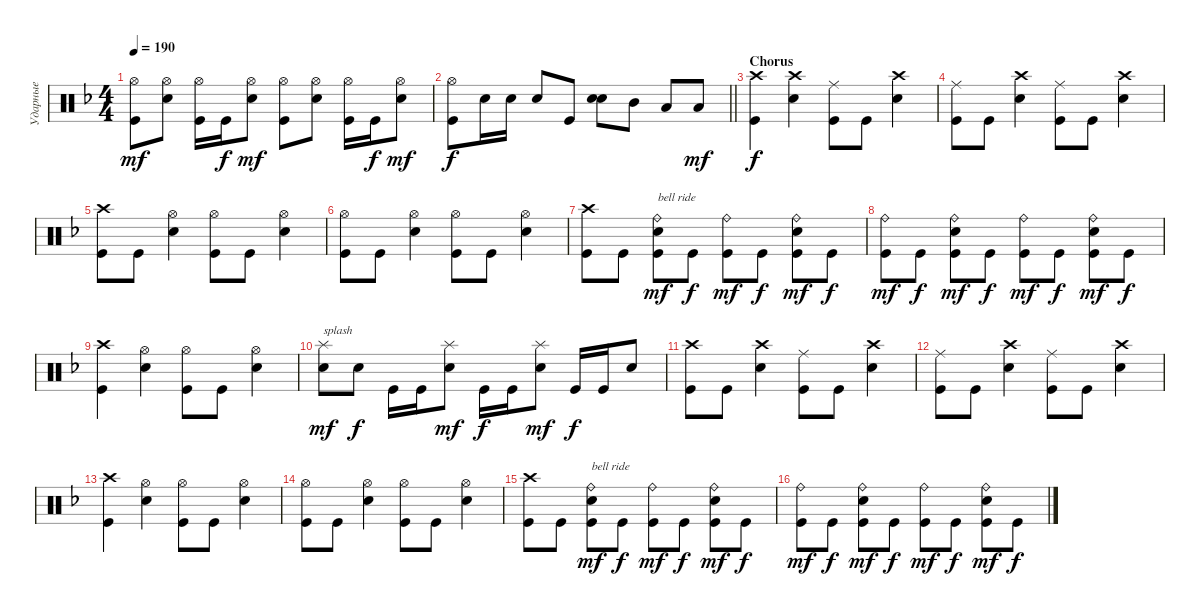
\track ("Ударные" "Ударные") {instrument percussion}
\staff {score}
\articulation defaults
\ts (4 4)
\tempo 190
\clef neutral
\ks dminor
("Kick (hit)" "Hi-Hat (open)").8{dy mf} ("Snare (hit) 2" "Hi-Hat (open)").8 ("Kick (hit)" "Hi-Hat (open)").16 "Kick (hit)".16{dy f} ("Snare (hit) 2" "Hi-Hat (open)").8{dy mf} ("Kick (hit)" "Hi-Hat (open)").8 ("Snare (hit) 2" "Hi-Hat (open)").8 ("Kick (hit)" "Hi-Hat (open)").16 "Kick (hit)".16{dy f} ("Snare (hit) 2" "Hi-Hat (open)").8{dy mf} |
\barLineRight lightlight
("Kick (hit)" "Hi-Hat (open)").8{dy f} "Snare (hit) 2".16 "Snare (hit) 2".16 "Snare (hit) 2".8 "Kick (hit)".8 ("Snare (hit) 2" "Snare (hit) 2").8{bd 240} "Mid Tom (hit)".8 "Low Tom (hit)".8 "Low Tom (hit)".8{dy mf} |
\section ("" "Chorus")
("Kick (hit)" "Crash high (hit)").4{dy f} ("Snare (hit) 2" "Crash high (hit)").4 ("Kick (hit)" "Ride (middle)").8 "Kick (hit)".8 ("Snare (hit) 2" "Crash high (hit)").4 |
("Kick (hit)" "Ride (middle)").8 "Kick (hit)".8 ("Snare (hit) 2" "Crash high (hit)").4 ("Kick (hit)" "Ride (middle)").8 "Kick (hit)".8 ("Snare (hit) 2" "Crash high (hit)").4 |
("Kick (hit)" "Crash high (hit)").8 "Kick (hit)".8 ("Snare (hit) 2" "Hi-Hat (open)").4 ("Kick (hit)" "Hi-Hat (open)").8 "Kick (hit)".8 ("Snare (hit) 2" "Hi-Hat (open)").4 |
("Kick (hit)" "Hi-Hat (open)").8 "Kick (hit)".8 ("Snare (hit) 2" "Hi-Hat (open)").4 ("Kick (hit)" "Hi-Hat (open)").8 "Kick (hit)".8 ("Snare (hit) 2" "Hi-Hat (open)").4 |
("Kick (hit)" "Crash high (hit)").8 "Kick (hit)".8 ("Kick (hit)" "Snare (hit) 2" "Ride (bell)").8{txt "bell ride" dy mf} "Kick (hit)".8{dy f} ("Kick (hit)" "Ride (bell)").8{dy mf} "Kick (hit)".8{dy f} ("Kick (hit)" "Snare (hit) 2" "Ride (bell)").8{dy mf} "Kick (hit)".8{dy f} |
("Kick (hit)" "Ride (bell)").8{dy mf} "Kick (hit)".8{dy f} ("Kick (hit)" "Snare (hit) 2" "Ride (bell)").8{dy mf} "Kick (hit)".8{dy f} ("Kick (hit)" "Ride (bell)").8{dy mf} "Kick (hit)".8{dy f} ("Kick (hit)" "Snare (hit) 2" "Ride (bell)").8{dy mf} "Kick (hit)".8{dy f} |
("Kick (hit)" "Crash high (hit)").4 ("Snare (hit) 2" "Hi-Hat (open)").4 ("Kick (hit)" "Hi-Hat (open)").8 "Kick (hit)".8 ("Snare (hit) 2" "Hi-Hat (open)").4 |
("Snare (hit) 2" "Splash (hit)").8{txt "splash" dy mf} "Snare (hit) 2".8{dy f} "Kick (hit)".16 "Kick (hit)".16 ("Snare (hit) 2" "Splash (hit)").8{dy mf} "Kick (hit)".16{dy f} "Kick (hit)".16 ("Snare (hit) 2" "Splash (hit)").8{dy mf} "Kick (hit)".16{dy f} "Kick (hit)".16 "Snare (hit) 2".8 |
("Kick (hit)" "Crash high (hit)").8 "Kick (hit)".8 ("Snare (hit) 2" "Crash high (hit)").4 ("Kick (hit)" "Ride (middle)").8 "Kick (hit)".8 ("Snare (hit) 2" "Crash high (hit)").4 |
("Kick (hit)" "Ride (middle)").8 "Kick (hit)".8 ("Snare (hit) 2" "Crash high (hit)").4 ("Kick (hit)" "Ride (middle)").8 "Kick (hit)".8 ("Snare (hit) 2" "Crash high (hit)").4 |
("Kick (hit)" "Crash high (hit)").4 ("Snare (hit) 2" "Hi-Hat (open)").4 ("Kick (hit)" "Hi-Hat (open)").8 "Kick (hit)".8 ("Snare (hit) 2" "Hi-Hat (open)").4 |
("Kick (hit)" "Hi-Hat (open)").8 "Kick (hit)".8 ("Snare (hit) 2" "Hi-Hat (open)").4 ("Kick (hit)" "Hi-Hat (open)").8 "Kick (hit)".8 ("Snare (hit) 2" "Hi-Hat (open)").4 |
("Kick (hit)" "Crash high (hit)").8 "Kick (hit)".8 ("Kick (hit)" "Snare (hit) 2" "Ride (bell)").8{txt "bell ride" dy mf} "Kick (hit)".8{dy f} ("Kick (hit)" "Ride (bell)").8{dy mf} "Kick (hit)".8{dy f} ("Kick (hit)" "Snare (hit) 2" "Ride (bell)").8{dy mf} "Kick (hit)".8{dy f} |
("Kick (hit)" "Ride (bell)").8{dy mf} "Kick (hit)".8{dy f} ("Kick (hit)" "Snare (hit) 2" "Ride (bell)").8{dy mf} "Kick (hit)".8{dy f} ("Kick (hit)" "Ride (bell)").8{dy mf} "Kick (hit)".8{dy f} ("Kick (hit)" "Snare (hit) 2" "Ride (bell)").8{dy mf} "Kick (hit)".8{dy f}
